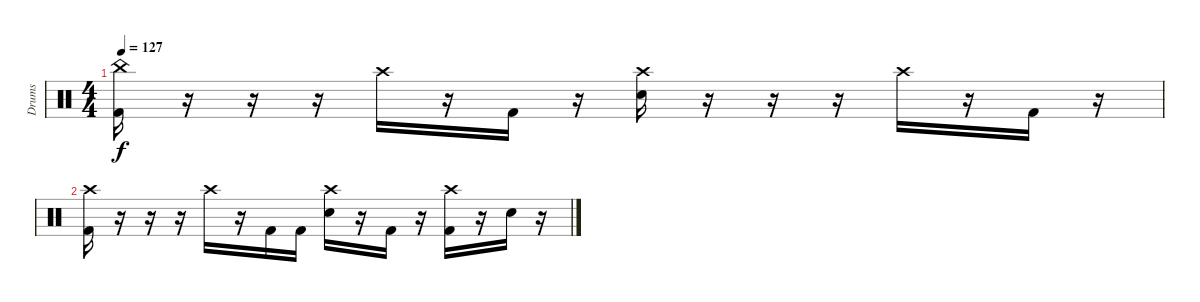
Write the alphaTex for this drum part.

\track ("Drums" "Drums") {instrument percussion}
\staff {score}
\articulation defaults
\ts (4 4)
\tempo 127
\clef neutral
\ks c
("China (hit)" "Kick (hit) 2").16{dy f} r.16 r.16 r.16 "Crash high (hit)".16 r.16 "Kick (hit) 2".16 r.16 ("Crash high (hit)" "Electric Snare (hit)").16 r.16 r.16 r.16 "Crash high (hit)".16 r.16 "Kick (hit) 2".16 r.16 |
("Crash high (hit)" "Kick (hit) 2").16 r.16 r.16 r.16 "Crash high (hit)".16 r.16 "Kick (hit) 2".16 "Kick (hit) 2".16 ("Crash high (hit)" "Electric Snare (hit)").16 r.16 "Kick (hit) 2".16 r.16 ("Crash high (hit)" "Kick (hit) 2").16 r.16 "Electric Snare (hit)".16 r.16
